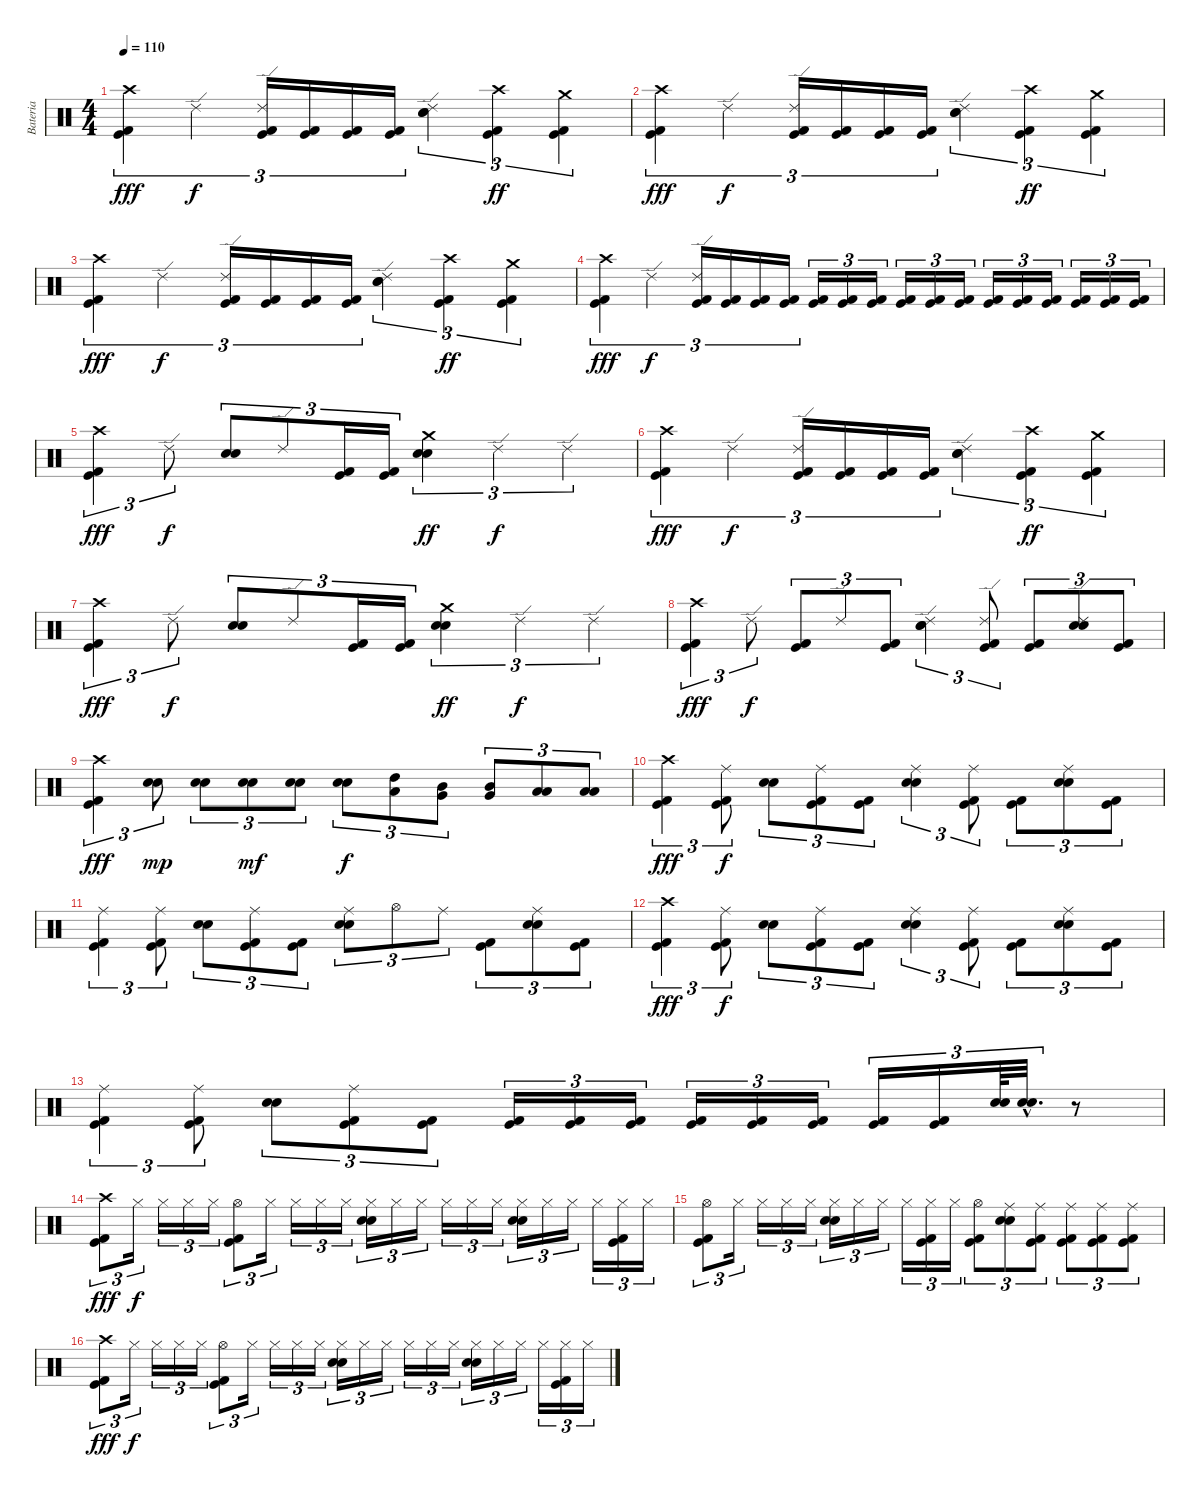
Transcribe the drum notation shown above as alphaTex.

\track ("Bateria" "Bateria") {instrument percussion}
\staff {score}
\articulation defaults
\ts (4 4)
\tempo 110
\clef neutral
\ks c
("Crash high (hit)" "Kick (hit) 2" "Kick (hit)").4{tu (3 2) dy fff} "Ride (edge) 2".4{tu (3 2) dy f} ("Ride (edge) 2" "Kick (hit) 2" "Kick (hit)").16{tu (3 2)} ("Kick (hit) 2" "Kick (hit)").16{tu (3 2)} ("Kick (hit) 2" "Kick (hit)").16{tu (3 2)} ("Kick (hit) 2" "Kick (hit)").16{tu (3 2)} ("Ride (edge) 2" "Electric Snare (hit)" "Snare (hit) 2").4{tu (3 2)} ("Crash high (hit)" "Kick (hit) 2" "Kick (hit)").4{tu (3 2) dy ff} ("Crash medium (hit)" "Kick (hit) 2" "Kick (hit)").4{tu (3 2)} |
("Crash high (hit)" "Kick (hit) 2" "Kick (hit)").4{tu (3 2) dy fff} "Ride (edge) 2".4{tu (3 2) dy f} ("Ride (edge) 2" "Kick (hit) 2" "Kick (hit)").16{tu (3 2)} ("Kick (hit) 2" "Kick (hit)").16{tu (3 2)} ("Kick (hit) 2" "Kick (hit)").16{tu (3 2)} ("Kick (hit) 2" "Kick (hit)").16{tu (3 2)} ("Ride (edge) 2" "Electric Snare (hit)" "Snare (hit) 2").4{tu (3 2)} ("Crash high (hit)" "Kick (hit) 2" "Kick (hit)").4{tu (3 2) dy ff} ("Crash medium (hit)" "Kick (hit) 2" "Kick (hit)").4{tu (3 2)} |
("Crash high (hit)" "Kick (hit) 2" "Kick (hit)").4{tu (3 2) dy fff} "Ride (edge) 2".4{tu (3 2) dy f} ("Ride (edge) 2" "Kick (hit) 2" "Kick (hit)").16{tu (3 2)} ("Kick (hit) 2" "Kick (hit)").16{tu (3 2)} ("Kick (hit) 2" "Kick (hit)").16{tu (3 2)} ("Kick (hit) 2" "Kick (hit)").16{tu (3 2)} ("Ride (edge) 2" "Electric Snare (hit)" "Snare (hit) 2").4{tu (3 2)} ("Crash high (hit)" "Kick (hit) 2" "Kick (hit)").4{tu (3 2) dy ff} ("Crash medium (hit)" "Kick (hit) 2" "Kick (hit)").4{tu (3 2)} |
("Crash high (hit)" "Kick (hit) 2" "Kick (hit)").4{tu (3 2) dy fff} "Ride (edge) 2".4{tu (3 2) dy f} ("Ride (edge) 2" "Kick (hit) 2" "Kick (hit)").16{tu (3 2)} ("Kick (hit) 2" "Kick (hit)").16{tu (3 2)} ("Kick (hit) 2" "Kick (hit)").16{tu (3 2)} ("Kick (hit) 2" "Kick (hit)").16{tu (3 2)} ("Kick (hit) 2" "Kick (hit)").16{tu (3 2)} ("Kick (hit) 2" "Kick (hit)").16{tu (3 2)} ("Kick (hit) 2" "Kick (hit)").16{tu (3 2)} ("Kick (hit) 2" "Kick (hit)").16{tu (3 2)} ("Kick (hit) 2" "Kick (hit)").16{tu (3 2)} ("Kick (hit) 2" "Kick (hit)").16{tu (3 2)} ("Kick (hit) 2" "Kick (hit)").16{tu (3 2)} ("Kick (hit) 2" "Kick (hit)").16{tu (3 2)} ("Kick (hit) 2" "Kick (hit)").16{tu (3 2)} ("Kick (hit) 2" "Kick (hit)").16{tu (3 2)} ("Kick (hit) 2" "Kick (hit)").16{tu (3 2)} ("Kick (hit) 2" "Kick (hit)").16{tu (3 2)} |
("Crash high (hit)" "Kick (hit) 2" "Kick (hit)").4{tu (3 2) dy fff} "Ride (edge) 2".8{tu (3 2) dy f} ("Electric Snare (hit)" "Snare (hit) 2").8{tu (3 2)} "Ride (edge) 2".8{tu (3 2)} ("Kick (hit) 2" "Kick (hit)").16{tu (3 2)} ("Kick (hit) 2" "Kick (hit)").16{tu (3 2)} ("Crash medium (hit)" "Electric Snare (hit)" "Snare (hit) 2").4{tu (3 2) dy ff} "Ride (edge) 2".4{tu (3 2) dy f} "Ride (edge) 2".4{tu (3 2)} |
("Crash high (hit)" "Kick (hit) 2" "Kick (hit)").4{tu (3 2) dy fff} "Ride (edge) 2".4{tu (3 2) dy f} ("Ride (edge) 2" "Kick (hit) 2" "Kick (hit)").16{tu (3 2)} ("Kick (hit) 2" "Kick (hit)").16{tu (3 2)} ("Kick (hit) 2" "Kick (hit)").16{tu (3 2)} ("Kick (hit) 2" "Kick (hit)").16{tu (3 2)} ("Ride (edge) 2" "Electric Snare (hit)" "Snare (hit) 2").4{tu (3 2)} ("Crash high (hit)" "Kick (hit) 2" "Kick (hit)").4{tu (3 2) dy ff} ("Crash medium (hit)" "Kick (hit) 2" "Kick (hit)").4{tu (3 2)} |
("Crash high (hit)" "Kick (hit) 2" "Kick (hit)").4{tu (3 2) dy fff} "Ride (edge) 2".8{tu (3 2) dy f} ("Electric Snare (hit)" "Snare (hit) 2").8{tu (3 2)} "Ride (edge) 2".8{tu (3 2)} ("Kick (hit) 2" "Kick (hit)").16{tu (3 2)} ("Kick (hit) 2" "Kick (hit)").16{tu (3 2)} ("Crash medium (hit)" "Electric Snare (hit)" "Snare (hit) 2").4{tu (3 2) dy ff} "Ride (edge) 2".4{tu (3 2) dy f} "Ride (edge) 2".4{tu (3 2)} |
("Crash high (hit)" "Kick (hit) 2" "Kick (hit)").4{tu (3 2) dy fff} "Ride (edge) 2".8{tu (3 2) dy f} ("Kick (hit) 2" "Kick (hit)").8{tu (3 2)} "Ride (edge) 2".8{tu (3 2)} ("Kick (hit) 2" "Kick (hit)").8{tu (3 2)} ("Ride (edge) 2" "Electric Snare (hit)" "Snare (hit) 2").4{tu (3 2)} ("Ride (edge) 2" "Kick (hit) 2" "Kick (hit)").8{tu (3 2)} ("Kick (hit) 2" "Kick (hit)").8{tu (3 2)} ("Ride (edge) 2" "Electric Snare (hit)" "Snare (hit) 2").8{tu (3 2)} ("Kick (hit) 2" "Kick (hit)").8{tu (3 2)} |
("Crash high (hit)" "Kick (hit) 2" "Kick (hit)").4{tu (3 2) dy fff} ("Electric Snare (hit)" "Snare (hit) 2").8{tu (3 2) dy mp} ("Electric Snare (hit)" "Snare (hit) 2").8{tu (3 2)} ("Electric Snare (hit)" "Snare (hit) 2").8{tu (3 2) dy mf} ("Electric Snare (hit)" "Snare (hit) 2").8{tu (3 2)} ("Electric Snare (hit)" "Snare (hit) 2").8{tu (3 2) dy f} ("High Tom (hit)" "Low Tom (hit)").8{tu (3 2)} ("Mid Tom (hit)" "Very Low Tom (hit)").8{tu (3 2)} ("Mid Tom (hit)" "Very Low Tom (hit)").8{tu (3 2)} ("Low Tom (hit)" "Low Floor Tom (hit)").8{tu (3 2)} ("Low Tom (hit)" "Low Floor Tom (hit)").8{tu (3 2)} |
("Crash high (hit)" "Kick (hit) 2" "Kick (hit)").4{tu (3 2) dy fff} ("Ride (middle)" "Kick (hit) 2" "Kick (hit)").8{tu (3 2) dy f} ("Electric Snare (hit)" "Snare (hit) 2").8{tu (3 2)} ("Ride (middle)" "Kick (hit) 2" "Kick (hit)").8{tu (3 2)} ("Kick (hit) 2" "Kick (hit)").8{tu (3 2)} ("Ride (middle)" "Electric Snare (hit)" "Snare (hit) 2").4{tu (3 2)} ("Ride (middle)" "Kick (hit) 2" "Kick (hit)").8{tu (3 2)} ("Kick (hit) 2" "Kick (hit)").8{tu (3 2)} ("Ride (middle)" "Electric Snare (hit)" "Snare (hit) 2").8{tu (3 2)} ("Kick (hit) 2" "Kick (hit)").8{tu (3 2)} |
("Ride (middle)" "Kick (hit) 2" "Kick (hit)").4{tu (3 2)} ("Ride (middle)" "Kick (hit) 2" "Kick (hit)").8{tu (3 2)} ("Electric Snare (hit)" "Snare (hit) 2").8{tu (3 2)} ("Ride (middle)" "Kick (hit) 2" "Kick (hit)").8{tu (3 2)} ("Kick (hit) 2" "Kick (hit)").8{tu (3 2)} ("Ride (middle)" "Electric Snare (hit)" "Snare (hit) 2").8{tu (3 2)} "Hi-Hat (open)".8{tu (3 2)} "Ride (middle)".8{tu (3 2)} ("Kick (hit) 2" "Kick (hit)").8{tu (3 2)} ("Ride (middle)" "Electric Snare (hit)" "Snare (hit) 2").8{tu (3 2)} ("Kick (hit) 2" "Kick (hit)").8{tu (3 2)} |
("Crash high (hit)" "Kick (hit) 2" "Kick (hit)").4{tu (3 2) dy fff} ("Ride (middle)" "Kick (hit) 2" "Kick (hit)").8{tu (3 2) dy f} ("Electric Snare (hit)" "Snare (hit) 2").8{tu (3 2)} ("Ride (middle)" "Kick (hit) 2" "Kick (hit)").8{tu (3 2)} ("Kick (hit) 2" "Kick (hit)").8{tu (3 2)} ("Ride (middle)" "Electric Snare (hit)" "Snare (hit) 2").4{tu (3 2)} ("Ride (middle)" "Kick (hit) 2" "Kick (hit)").8{tu (3 2)} ("Kick (hit) 2" "Kick (hit)").8{tu (3 2)} ("Ride (middle)" "Electric Snare (hit)" "Snare (hit) 2").8{tu (3 2)} ("Kick (hit) 2" "Kick (hit)").8{tu (3 2)} |
("Ride (middle)" "Kick (hit) 2" "Kick (hit)").4{tu (3 2)} ("Ride (middle)" "Kick (hit) 2" "Kick (hit)").8{tu (3 2)} ("Electric Snare (hit)" "Snare (hit) 2").8{tu (3 2)} ("Ride (middle)" "Kick (hit) 2" "Kick (hit)").8{tu (3 2)} ("Kick (hit) 2" "Kick (hit)").8{tu (3 2)} ("Kick (hit) 2" "Kick (hit)").16{tu (3 2)} ("Kick (hit) 2" "Kick (hit)").16{tu (3 2)} ("Kick (hit) 2" "Kick (hit)").16{tu (3 2)} ("Kick (hit) 2" "Kick (hit)").16{tu (3 2)} ("Kick (hit) 2" "Kick (hit)").16{tu (3 2)} ("Kick (hit) 2" "Kick (hit)").16{tu (3 2)} ("Kick (hit) 2" "Kick (hit)").16{tu (3 2)} ("Kick (hit) 2" "Kick (hit)").16{tu (3 2)} ("Electric Snare (hit)" "Snare (hit) 2").64{tu (3 2)} ("Electric Snare (hit)"{hac} "Snare (hit) 2"{hac}).32{d tu (3 2)} r.8 |
("Crash high (hit)" "Kick (hit) 2" "Kick (hit)").8{tu (3 2) dy fff} "Hi-Hat (closed)".16{tu (3 2) dy f} "Hi-Hat (closed)".16{tu (3 2)} "Hi-Hat (closed)".16{tu (3 2)} "Hi-Hat (closed)".16{tu (3 2)} ("Hi-Hat (open)" "Kick (hit) 2" "Kick (hit)").8{tu (3 2)} "Hi-Hat (closed)".16{tu (3 2)} "Hi-Hat (closed)".16{tu (3 2)} "Hi-Hat (closed)".16{tu (3 2)} "Hi-Hat (closed)".16{tu (3 2)} ("Hi-Hat (closed)" "Electric Snare (hit)" "Snare (hit) 2").16{tu (3 2)} "Hi-Hat (closed)".16{tu (3 2)} "Hi-Hat (closed)".16{tu (3 2)} "Hi-Hat (closed)".16{tu (3 2)} "Hi-Hat (closed)".16{tu (3 2)} "Hi-Hat (closed)".16{tu (3 2)} ("Hi-Hat (closed)" "Electric Snare (hit)" "Snare (hit) 2").16{tu (3 2)} "Hi-Hat (closed)".16{tu (3 2)} "Hi-Hat (closed)".16{tu (3 2)} "Hi-Hat (closed)".16{tu (3 2)} ("Hi-Hat (closed)" "Kick (hit) 2" "Kick (hit)").16{tu (3 2)} "Hi-Hat (closed)".16{tu (3 2)} |
("Hi-Hat (open)" "Kick (hit) 2" "Kick (hit)").8{tu (3 2)} "Hi-Hat (closed)".16{tu (3 2)} "Hi-Hat (closed)".16{tu (3 2)} "Hi-Hat (closed)".16{tu (3 2)} "Hi-Hat (closed)".16{tu (3 2)} ("Hi-Hat (closed)" "Electric Snare (hit)" "Snare (hit) 2").16{tu (3 2)} "Hi-Hat (closed)".16{tu (3 2)} "Hi-Hat (closed)".16{tu (3 2)} "Hi-Hat (closed)".16{tu (3 2)} ("Hi-Hat (closed)" "Kick (hit) 2" "Kick (hit)").16{tu (3 2)} "Hi-Hat (closed)".16{tu (3 2)} ("Hi-Hat (open)" "Kick (hit) 2" "Kick (hit)").8{tu (3 2)} ("Ride (middle)" "Electric Snare (hit)" "Snare (hit) 2").8{tu (3 2)} ("Ride (middle)" "Kick (hit) 2" "Kick (hit)").8{tu (3 2)} ("Ride (middle)" "Kick (hit) 2" "Kick (hit)").8{tu (3 2)} ("Ride (middle)" "Kick (hit) 2" "Kick (hit)").8{tu (3 2)} ("Ride (middle)" "Kick (hit) 2" "Kick (hit)").8{tu (3 2)} |
("Crash high (hit)" "Kick (hit) 2" "Kick (hit)").8{tu (3 2) dy fff} "Hi-Hat (closed)".16{tu (3 2) dy f} "Hi-Hat (closed)".16{tu (3 2)} "Hi-Hat (closed)".16{tu (3 2)} "Hi-Hat (closed)".16{tu (3 2)} ("Hi-Hat (open)" "Kick (hit) 2" "Kick (hit)").8{tu (3 2)} "Hi-Hat (closed)".16{tu (3 2)} "Hi-Hat (closed)".16{tu (3 2)} "Hi-Hat (closed)".16{tu (3 2)} "Hi-Hat (closed)".16{tu (3 2)} ("Hi-Hat (closed)" "Electric Snare (hit)" "Snare (hit) 2").16{tu (3 2)} "Hi-Hat (closed)".16{tu (3 2)} "Hi-Hat (closed)".16{tu (3 2)} "Hi-Hat (closed)".16{tu (3 2)} "Hi-Hat (closed)".16{tu (3 2)} "Hi-Hat (closed)".16{tu (3 2)} ("Hi-Hat (closed)" "Electric Snare (hit)" "Snare (hit) 2").16{tu (3 2)} "Hi-Hat (closed)".16{tu (3 2)} "Hi-Hat (closed)".16{tu (3 2)} "Hi-Hat (closed)".16{tu (3 2)} ("Hi-Hat (closed)" "Kick (hit) 2" "Kick (hit)").16{tu (3 2)} "Hi-Hat (closed)".16{tu (3 2)}
